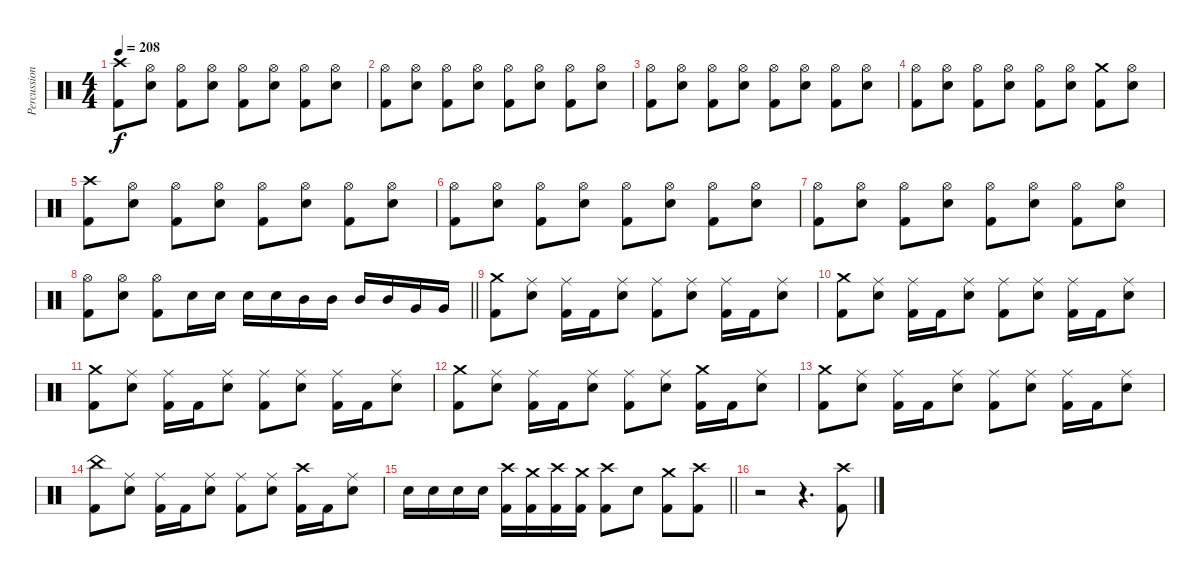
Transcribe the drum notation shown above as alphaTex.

\track ("Percussion" "Percussion") {instrument percussion}
\staff {score}
\articulation defaults
\ts (4 4)
\tempo 208
\clef neutral
\ks c
("Crash high (hit)" "Kick (hit) 2").8{dy f} ("Hi-Hat (open)" "Snare (hit) 2").8 ("Hi-Hat (open)" "Kick (hit) 2").8 ("Hi-Hat (open)" "Snare (hit) 2").8 ("Hi-Hat (open)" "Kick (hit) 2").8 ("Hi-Hat (open)" "Snare (hit) 2").8 ("Hi-Hat (open)" "Kick (hit) 2").8 ("Hi-Hat (open)" "Snare (hit) 2").8 |
("Hi-Hat (open)" "Kick (hit) 2").8 ("Hi-Hat (open)" "Snare (hit) 2").8 ("Hi-Hat (open)" "Kick (hit) 2").8 ("Hi-Hat (open)" "Snare (hit) 2").8 ("Hi-Hat (open)" "Kick (hit) 2").8 ("Hi-Hat (open)" "Snare (hit) 2").8 ("Hi-Hat (open)" "Kick (hit) 2").8 ("Hi-Hat (open)" "Snare (hit) 2").8 |
("Hi-Hat (open)" "Kick (hit) 2").8 ("Hi-Hat (open)" "Snare (hit) 2").8 ("Hi-Hat (open)" "Kick (hit) 2").8 ("Hi-Hat (open)" "Snare (hit) 2").8 ("Hi-Hat (open)" "Kick (hit) 2").8 ("Hi-Hat (open)" "Snare (hit) 2").8 ("Hi-Hat (open)" "Kick (hit) 2").8 ("Hi-Hat (open)" "Snare (hit) 2").8 |
("Hi-Hat (open)" "Kick (hit) 2").8 ("Hi-Hat (open)" "Snare (hit) 2").8 ("Hi-Hat (open)" "Kick (hit) 2").8 ("Hi-Hat (open)" "Snare (hit) 2").8 ("Hi-Hat (open)" "Kick (hit) 2").8 ("Hi-Hat (open)" "Snare (hit) 2").8 ("Crash medium (hit)" "Kick (hit) 2").8 ("Hi-Hat (open)" "Snare (hit) 2").8 |
("Crash high (hit)" "Kick (hit) 2").8 ("Hi-Hat (open)" "Snare (hit) 2").8 ("Hi-Hat (open)" "Kick (hit) 2").8 ("Hi-Hat (open)" "Snare (hit) 2").8 ("Hi-Hat (open)" "Kick (hit) 2").8 ("Hi-Hat (open)" "Snare (hit) 2").8 ("Hi-Hat (open)" "Kick (hit) 2").8 ("Hi-Hat (open)" "Snare (hit) 2").8 |
("Hi-Hat (open)" "Kick (hit) 2").8 ("Hi-Hat (open)" "Snare (hit) 2").8 ("Hi-Hat (open)" "Kick (hit) 2").8 ("Hi-Hat (open)" "Snare (hit) 2").8 ("Hi-Hat (open)" "Kick (hit) 2").8 ("Hi-Hat (open)" "Snare (hit) 2").8 ("Hi-Hat (open)" "Kick (hit) 2").8 ("Hi-Hat (open)" "Snare (hit) 2").8 |
("Hi-Hat (open)" "Kick (hit) 2").8 ("Hi-Hat (open)" "Snare (hit) 2").8 ("Hi-Hat (open)" "Kick (hit) 2").8 ("Hi-Hat (open)" "Snare (hit) 2").8 ("Hi-Hat (open)" "Kick (hit) 2").8 ("Hi-Hat (open)" "Snare (hit) 2").8 ("Hi-Hat (open)" "Kick (hit) 2").8 ("Hi-Hat (open)" "Snare (hit) 2").8 |
\barLineRight lightlight
("Hi-Hat (open)" "Kick (hit) 2").8 ("Hi-Hat (open)" "Snare (hit) 2").8 ("Hi-Hat (open)" "Kick (hit) 2").8 "Snare (hit) 2".16 "Snare (hit) 2".16 "Snare (hit) 2".16 "Snare (hit) 2".16 "Mid Tom (hit)".16 "Mid Tom (hit)".16 "Mid Tom (hit)".16 "Mid Tom (hit)".16 "Very Low Tom (hit)".16 "Very Low Tom (hit)".16 |
("Crash medium (hit)" "Kick (hit) 2").8 ("Ride (middle)" "Snare (hit) 2").8 ("Ride (middle)" "Kick (hit) 2").16 "Kick (hit) 2".16 ("Ride (middle)" "Snare (hit) 2").8 ("Ride (middle)" "Kick (hit) 2").8 ("Ride (middle)" "Snare (hit) 2").8 ("Ride (middle)" "Kick (hit) 2").16 "Kick (hit) 2".16 ("Ride (middle)" "Snare (hit) 2").8 |
("Crash medium (hit)" "Kick (hit) 2").8 ("Ride (middle)" "Snare (hit) 2").8 ("Ride (middle)" "Kick (hit) 2").16 "Kick (hit) 2".16 ("Ride (middle)" "Snare (hit) 2").8 ("Ride (middle)" "Kick (hit) 2").8 ("Ride (middle)" "Snare (hit) 2").8 ("Ride (middle)" "Kick (hit) 2").16 "Kick (hit) 2".16 ("Ride (middle)" "Snare (hit) 2").8 |
("Crash medium (hit)" "Kick (hit) 2").8 ("Ride (middle)" "Snare (hit) 2").8 ("Ride (middle)" "Kick (hit) 2").16 "Kick (hit) 2".16 ("Ride (middle)" "Snare (hit) 2").8 ("Ride (middle)" "Kick (hit) 2").8 ("Ride (middle)" "Snare (hit) 2").8 ("Ride (middle)" "Kick (hit) 2").16 "Kick (hit) 2".16 ("Ride (middle)" "Snare (hit) 2").8 |
("Crash medium (hit)" "Kick (hit) 2").8 ("Ride (middle)" "Snare (hit) 2").8 ("Ride (middle)" "Kick (hit) 2").16 "Kick (hit) 2".16 ("Ride (middle)" "Snare (hit) 2").8 ("Ride (middle)" "Kick (hit) 2").8 ("Ride (middle)" "Snare (hit) 2").8 ("Crash medium (hit)" "Kick (hit) 2").16 "Kick (hit) 2".16 ("Ride (middle)" "Snare (hit) 2").8 |
("Crash medium (hit)" "Kick (hit) 2").8 ("Ride (middle)" "Snare (hit) 2").8 ("Ride (middle)" "Kick (hit) 2").16 "Kick (hit) 2".16 ("Ride (middle)" "Snare (hit) 2").8 ("Ride (middle)" "Kick (hit) 2").8 ("Ride (middle)" "Snare (hit) 2").8 ("Ride (middle)" "Kick (hit) 2").16 "Kick (hit) 2".16 ("Ride (middle)" "Snare (hit) 2").8 |
("China (hit)" "Kick (hit) 2").8 ("Ride (middle)" "Snare (hit) 2").8 ("Ride (middle)" "Kick (hit) 2").16 "Kick (hit) 2".16 ("Ride (middle)" "Snare (hit) 2").8 ("Ride (middle)" "Kick (hit) 2").8 ("Ride (middle)" "Snare (hit) 2").8 ("Crash high (hit)" "Kick (hit) 2").16 "Kick (hit) 2".16 ("Ride (middle)" "Snare (hit) 2").8 |
\barLineRight lightlight "Snare (hit) 2".16 "Snare (hit) 2".16 "Snare (hit) 2".16 "Snare (hit) 2".16
("Crash high (hit)" "Kick (hit) 2").16 ("Crash medium (hit)" "Kick (hit) 2").16 ("Crash high (hit)" "Kick (hit) 2").16 ("Crash medium (hit)" "Kick (hit) 2").16 ("Crash high (hit)" "Kick (hit) 2").8 "Snare (hit) 2".8 ("Crash medium (hit)" "Kick (hit) 2").8 ("Crash high (hit)" "Kick (hit) 2").8 |
r.2 r.4{d} ("Crash high (hit)" "Kick (hit) 2").8
